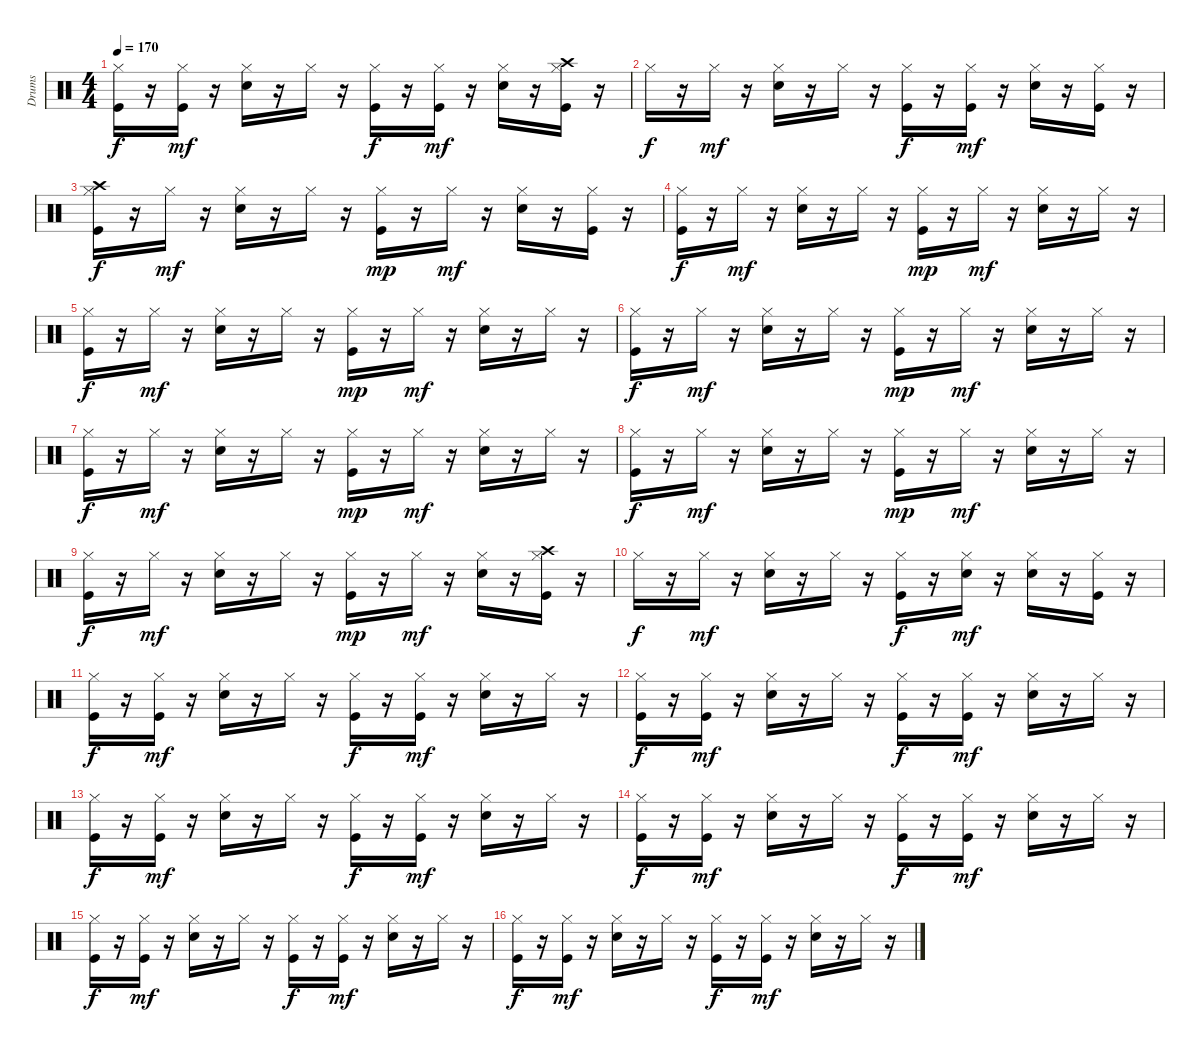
\track ("Drums" "Drums") {instrument percussion}
\staff {score}
\articulation defaults
\ts (4 4)
\tempo 170
\clef neutral
\ks c
("Hi-Hat (closed)" "Kick (hit)").16{dy f} r.16 ("Hi-Hat (closed)" "Kick (hit)").16{dy mf} r.16 ("Hi-Hat (closed)" "Electric Snare (hit)").16 r.16 "Hi-Hat (closed)".16 r.16 ("Hi-Hat (closed)" "Kick (hit)").16{dy f} r.16 ("Hi-Hat (closed)" "Kick (hit)").16{dy mf} r.16 ("Hi-Hat (closed)" "Electric Snare (hit)").16 r.16 ("Hi-Hat (closed)" "Crash high (hit)" "Kick (hit)").16 r.16 |
"Hi-Hat (closed)".16{dy f} r.16 "Hi-Hat (closed)".16{dy mf} r.16 ("Hi-Hat (closed)" "Electric Snare (hit)").16 r.16 "Hi-Hat (closed)".16 r.16 ("Hi-Hat (closed)" "Kick (hit)").16{dy f} r.16 ("Hi-Hat (closed)" "Kick (hit)").16{dy mf} r.16 ("Hi-Hat (closed)" "Electric Snare (hit)").16 r.16 ("Hi-Hat (closed)" "Kick (hit)").16 r.16 |
("Hi-Hat (closed)" "Crash high (hit)" "Kick (hit)").16{dy f} r.16 "Hi-Hat (closed)".16{dy mf} r.16 ("Hi-Hat (closed)" "Electric Snare (hit)").16 r.16 "Hi-Hat (closed)".16 r.16 ("Hi-Hat (closed)" "Kick (hit)").16{dy mp} r.16 "Hi-Hat (closed)".16{dy mf} r.16 ("Hi-Hat (closed)" "Electric Snare (hit)").16 r.16 ("Hi-Hat (closed)" "Kick (hit)").16 r.16 |
("Hi-Hat (closed)" "Kick (hit)").16{dy f} r.16 "Hi-Hat (closed)".16{dy mf} r.16 ("Hi-Hat (closed)" "Electric Snare (hit)").16 r.16 "Hi-Hat (closed)".16 r.16 ("Hi-Hat (closed)" "Kick (hit)").16{dy mp} r.16 "Hi-Hat (closed)".16{dy mf} r.16 ("Hi-Hat (closed)" "Electric Snare (hit)").16 r.16 "Hi-Hat (closed)".16 r.16 |
("Hi-Hat (closed)" "Kick (hit)").16{dy f} r.16 "Hi-Hat (closed)".16{dy mf} r.16 ("Hi-Hat (closed)" "Electric Snare (hit)").16 r.16 "Hi-Hat (closed)".16 r.16 ("Hi-Hat (closed)" "Kick (hit)").16{dy mp} r.16 "Hi-Hat (closed)".16{dy mf} r.16 ("Hi-Hat (closed)" "Electric Snare (hit)").16 r.16 "Hi-Hat (closed)".16 r.16 |
("Hi-Hat (closed)" "Kick (hit)").16{dy f} r.16 "Hi-Hat (closed)".16{dy mf} r.16 ("Hi-Hat (closed)" "Electric Snare (hit)").16 r.16 "Hi-Hat (closed)".16 r.16 ("Hi-Hat (closed)" "Kick (hit)").16{dy mp} r.16 "Hi-Hat (closed)".16{dy mf} r.16 ("Hi-Hat (closed)" "Electric Snare (hit)").16 r.16 "Hi-Hat (closed)".16 r.16 |
("Hi-Hat (closed)" "Kick (hit)").16{dy f} r.16 "Hi-Hat (closed)".16{dy mf} r.16 ("Hi-Hat (closed)" "Electric Snare (hit)").16 r.16 "Hi-Hat (closed)".16 r.16 ("Hi-Hat (closed)" "Kick (hit)").16{dy mp} r.16 "Hi-Hat (closed)".16{dy mf} r.16 ("Hi-Hat (closed)" "Electric Snare (hit)").16 r.16 "Hi-Hat (closed)".16 r.16 |
("Hi-Hat (closed)" "Kick (hit)").16{dy f} r.16 "Hi-Hat (closed)".16{dy mf} r.16 ("Hi-Hat (closed)" "Electric Snare (hit)").16 r.16 "Hi-Hat (closed)".16 r.16 ("Hi-Hat (closed)" "Kick (hit)").16{dy mp} r.16 "Hi-Hat (closed)".16{dy mf} r.16 ("Hi-Hat (closed)" "Electric Snare (hit)").16 r.16 "Hi-Hat (closed)".16 r.16 |
("Hi-Hat (closed)" "Kick (hit)").16{dy f} r.16 "Hi-Hat (closed)".16{dy mf} r.16 ("Hi-Hat (closed)" "Electric Snare (hit)").16 r.16 "Hi-Hat (closed)".16 r.16 ("Hi-Hat (closed)" "Kick (hit)").16{dy mp} r.16 "Hi-Hat (closed)".16{dy mf} r.16 ("Hi-Hat (closed)" "Electric Snare (hit)").16 r.16 ("Hi-Hat (closed)" "Crash high (hit)" "Kick (hit)").16 r.16 |
"Hi-Hat (closed)".16{dy f} r.16 "Hi-Hat (closed)".16{dy mf} r.16 ("Hi-Hat (closed)" "Electric Snare (hit)").16 r.16 "Hi-Hat (closed)".16 r.16 ("Hi-Hat (closed)" "Kick (hit)").16{dy f} r.16 ("Hi-Hat (closed)" "Electric Snare (hit)").16{dy mf} r.16 ("Hi-Hat (closed)" "Electric Snare (hit)").16 r.16 ("Hi-Hat (closed)" "Kick (hit)").16 r.16 |
("Hi-Hat (closed)" "Kick (hit)").16{dy f} r.16 ("Hi-Hat (closed)" "Kick (hit)").16{dy mf} r.16 ("Hi-Hat (closed)" "Electric Snare (hit)").16 r.16 "Hi-Hat (closed)".16 r.16 ("Hi-Hat (closed)" "Kick (hit)").16{dy f} r.16 ("Hi-Hat (closed)" "Kick (hit)").16{dy mf} r.16 ("Hi-Hat (closed)" "Electric Snare (hit)").16 r.16 "Hi-Hat (closed)".16 r.16 |
("Hi-Hat (closed)" "Kick (hit)").16{dy f} r.16 ("Hi-Hat (closed)" "Kick (hit)").16{dy mf} r.16 ("Hi-Hat (closed)" "Electric Snare (hit)").16 r.16 "Hi-Hat (closed)".16 r.16 ("Hi-Hat (closed)" "Kick (hit)").16{dy f} r.16 ("Hi-Hat (closed)" "Kick (hit)").16{dy mf} r.16 ("Hi-Hat (closed)" "Electric Snare (hit)").16 r.16 "Hi-Hat (closed)".16 r.16 |
("Hi-Hat (closed)" "Kick (hit)").16{dy f} r.16 ("Hi-Hat (closed)" "Kick (hit)").16{dy mf} r.16 ("Hi-Hat (closed)" "Electric Snare (hit)").16 r.16 "Hi-Hat (closed)".16 r.16 ("Hi-Hat (closed)" "Kick (hit)").16{dy f} r.16 ("Hi-Hat (closed)" "Kick (hit)").16{dy mf} r.16 ("Hi-Hat (closed)" "Electric Snare (hit)").16 r.16 "Hi-Hat (closed)".16 r.16 |
("Hi-Hat (closed)" "Kick (hit)").16{dy f} r.16 ("Hi-Hat (closed)" "Kick (hit)").16{dy mf} r.16 ("Hi-Hat (closed)" "Electric Snare (hit)").16 r.16 "Hi-Hat (closed)".16 r.16 ("Hi-Hat (closed)" "Kick (hit)").16{dy f} r.16 ("Hi-Hat (closed)" "Kick (hit)").16{dy mf} r.16 ("Hi-Hat (closed)" "Electric Snare (hit)").16 r.16 "Hi-Hat (closed)".16 r.16 |
("Hi-Hat (closed)" "Kick (hit)").16{dy f} r.16 ("Hi-Hat (closed)" "Kick (hit)").16{dy mf} r.16 ("Hi-Hat (closed)" "Electric Snare (hit)").16 r.16 "Hi-Hat (closed)".16 r.16 ("Hi-Hat (closed)" "Kick (hit)").16{dy f} r.16 ("Hi-Hat (closed)" "Kick (hit)").16{dy mf} r.16 ("Hi-Hat (closed)" "Electric Snare (hit)").16 r.16 "Hi-Hat (closed)".16 r.16 |
("Hi-Hat (closed)" "Kick (hit)").16{dy f} r.16 ("Hi-Hat (closed)" "Kick (hit)").16{dy mf} r.16 ("Hi-Hat (closed)" "Electric Snare (hit)").16 r.16 "Hi-Hat (closed)".16 r.16 ("Hi-Hat (closed)" "Kick (hit)").16{dy f} r.16 ("Hi-Hat (closed)" "Kick (hit)").16{dy mf} r.16 ("Hi-Hat (closed)" "Electric Snare (hit)").16 r.16 "Hi-Hat (closed)".16 r.16
